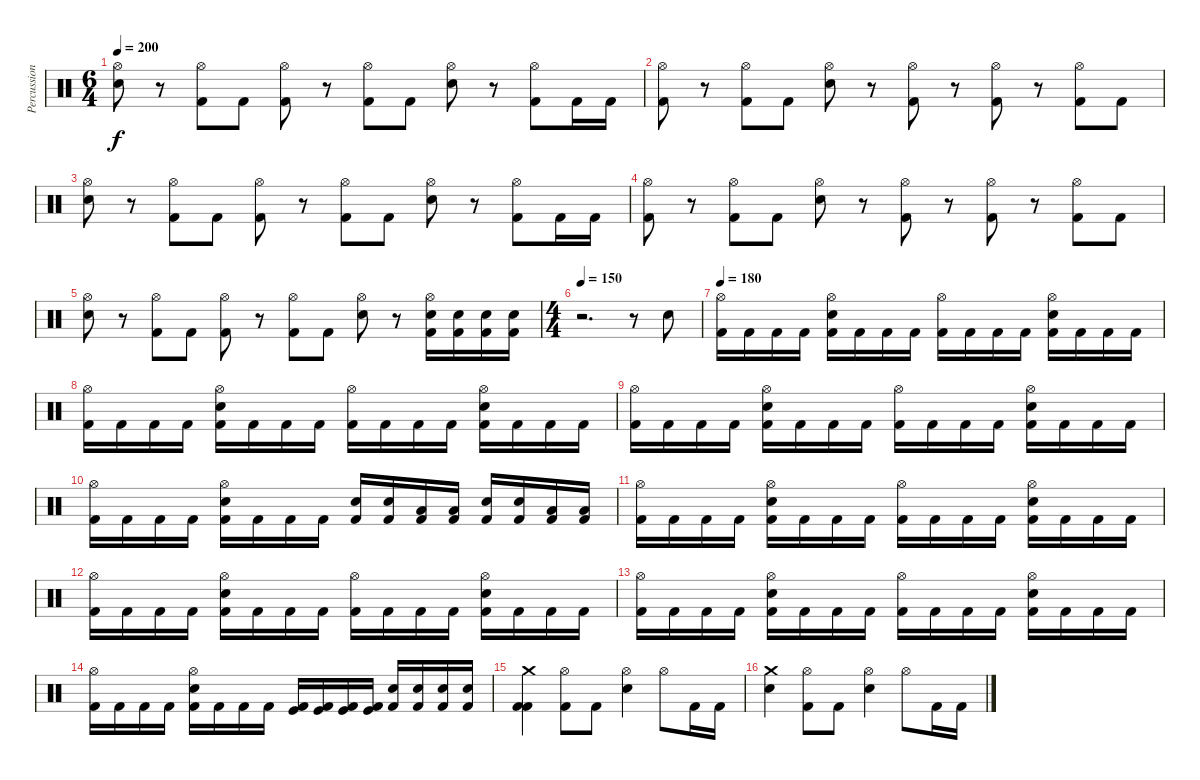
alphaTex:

\track ("Percussion" "Percussion") {instrument percussion}
\staff {score}
\articulation defaults
\ts (6 4)
\tempo 200
\clef neutral
\ks c
("Hi-Hat (open)" "Electric Snare (hit)").8{dy f} r.8 ("Hi-Hat (open)" "Kick (hit) 2").8 "Kick (hit) 2".8 ("Hi-Hat (open)" "Kick (hit) 2").8 r.8 ("Hi-Hat (open)" "Kick (hit) 2").8 "Kick (hit) 2".8 ("Hi-Hat (open)" "Electric Snare (hit)").8 r.8 ("Hi-Hat (open)" "Kick (hit) 2").8 "Kick (hit) 2".16 "Kick (hit) 2".16 |
("Hi-Hat (open)" "Kick (hit) 2").8 r.8 ("Hi-Hat (open)" "Kick (hit) 2").8 "Kick (hit) 2".8 ("Hi-Hat (open)" "Electric Snare (hit)").8 r.8 ("Hi-Hat (open)" "Kick (hit) 2").8 r.8 ("Hi-Hat (open)" "Kick (hit) 2").8 r.8 ("Hi-Hat (open)" "Kick (hit) 2").8 "Kick (hit) 2".8 |
("Hi-Hat (open)" "Electric Snare (hit)").8 r.8 ("Hi-Hat (open)" "Kick (hit) 2").8 "Kick (hit) 2".8 ("Hi-Hat (open)" "Kick (hit) 2").8 r.8 ("Hi-Hat (open)" "Kick (hit) 2").8 "Kick (hit) 2".8 ("Hi-Hat (open)" "Electric Snare (hit)").8 r.8 ("Hi-Hat (open)" "Kick (hit) 2").8 "Kick (hit) 2".16 "Kick (hit) 2".16 |
("Hi-Hat (open)" "Kick (hit) 2").8 r.8 ("Hi-Hat (open)" "Kick (hit) 2").8 "Kick (hit) 2".8 ("Hi-Hat (open)" "Electric Snare (hit)").8 r.8 ("Hi-Hat (open)" "Kick (hit) 2").8 r.8 ("Hi-Hat (open)" "Kick (hit) 2").8 r.8 ("Hi-Hat (open)" "Kick (hit) 2").8 "Kick (hit) 2".8 |
("Hi-Hat (open)" "Electric Snare (hit)").8 r.8 ("Hi-Hat (open)" "Kick (hit) 2").8 "Kick (hit) 2".8 ("Hi-Hat (open)" "Kick (hit) 2").8 r.8 ("Hi-Hat (open)" "Kick (hit) 2").8 "Kick (hit) 2".8 ("Hi-Hat (open)" "Electric Snare (hit)").8 r.8 ("Hi-Hat (open)" "Electric Snare (hit)" "Kick (hit) 2").16 ("Electric Snare (hit)" "Kick (hit) 2").16 ("Electric Snare (hit)" "Kick (hit) 2").16 ("Electric Snare (hit)" "Kick (hit) 2").16 |
\ts (4 4)
\tempo 150
r.2{d} r.8 "Electric Snare (hit)".8 |
\tempo 180
("Hi-Hat (open)" "Kick (hit) 2").16 "Kick (hit) 2".16 "Kick (hit) 2".16 "Kick (hit) 2".16 ("Hi-Hat (open)" "Kick (hit) 2" "Electric Snare (hit)").16 "Kick (hit) 2".16 "Kick (hit) 2".16 "Kick (hit) 2".16 ("Hi-Hat (open)" "Kick (hit) 2").16 "Kick (hit) 2".16 "Kick (hit) 2".16 "Kick (hit) 2".16 ("Hi-Hat (open)" "Kick (hit) 2" "Electric Snare (hit)").16 "Kick (hit) 2".16 "Kick (hit) 2".16 "Kick (hit) 2".16 |
("Hi-Hat (open)" "Kick (hit) 2").16 "Kick (hit) 2".16 "Kick (hit) 2".16 "Kick (hit) 2".16 ("Hi-Hat (open)" "Kick (hit) 2" "Electric Snare (hit)").16 "Kick (hit) 2".16 "Kick (hit) 2".16 "Kick (hit) 2".16 ("Hi-Hat (open)" "Kick (hit) 2").16 "Kick (hit) 2".16 "Kick (hit) 2".16 "Kick (hit) 2".16 ("Hi-Hat (open)" "Kick (hit) 2" "Electric Snare (hit)").16 "Kick (hit) 2".16 "Kick (hit) 2".16 "Kick (hit) 2".16 |
("Hi-Hat (open)" "Kick (hit) 2").16 "Kick (hit) 2".16 "Kick (hit) 2".16 "Kick (hit) 2".16 ("Hi-Hat (open)" "Kick (hit) 2" "Electric Snare (hit)").16 "Kick (hit) 2".16 "Kick (hit) 2".16 "Kick (hit) 2".16 ("Hi-Hat (open)" "Kick (hit) 2").16 "Kick (hit) 2".16 "Kick (hit) 2".16 "Kick (hit) 2".16 ("Hi-Hat (open)" "Kick (hit) 2" "Electric Snare (hit)").16 "Kick (hit) 2".16 "Kick (hit) 2".16 "Kick (hit) 2".16 |
("Hi-Hat (open)" "Kick (hit) 2").16 "Kick (hit) 2".16 "Kick (hit) 2".16 "Kick (hit) 2".16 ("Hi-Hat (open)" "Kick (hit) 2" "Electric Snare (hit)").16 "Kick (hit) 2".16 "Kick (hit) 2".16 "Kick (hit) 2".16 ("Electric Snare (hit)" "Kick (hit) 2").16 ("Electric Snare (hit)" "Kick (hit) 2").16 ("Low Floor Tom (hit)" "Kick (hit) 2").16 ("Low Floor Tom (hit)" "Kick (hit) 2").16 ("Electric Snare (hit)" "Kick (hit) 2").16 ("Electric Snare (hit)" "Kick (hit) 2").16 ("Low Floor Tom (hit)" "Kick (hit) 2").16 ("Low Floor Tom (hit)" "Kick (hit) 2").16 |
("Hi-Hat (open)" "Kick (hit) 2").16 "Kick (hit) 2".16 "Kick (hit) 2".16 "Kick (hit) 2".16 ("Hi-Hat (open)" "Kick (hit) 2" "Electric Snare (hit)").16 "Kick (hit) 2".16 "Kick (hit) 2".16 "Kick (hit) 2".16 ("Hi-Hat (open)" "Kick (hit) 2").16 "Kick (hit) 2".16 "Kick (hit) 2".16 "Kick (hit) 2".16 ("Hi-Hat (open)" "Kick (hit) 2" "Electric Snare (hit)").16 "Kick (hit) 2".16 "Kick (hit) 2".16 "Kick (hit) 2".16 |
("Hi-Hat (open)" "Kick (hit) 2").16 "Kick (hit) 2".16 "Kick (hit) 2".16 "Kick (hit) 2".16 ("Hi-Hat (open)" "Kick (hit) 2" "Electric Snare (hit)").16 "Kick (hit) 2".16 "Kick (hit) 2".16 "Kick (hit) 2".16 ("Hi-Hat (open)" "Kick (hit) 2").16 "Kick (hit) 2".16 "Kick (hit) 2".16 "Kick (hit) 2".16 ("Hi-Hat (open)" "Kick (hit) 2" "Electric Snare (hit)").16 "Kick (hit) 2".16 "Kick (hit) 2".16 "Kick (hit) 2".16 |
("Hi-Hat (open)" "Kick (hit) 2").16 "Kick (hit) 2".16 "Kick (hit) 2".16 "Kick (hit) 2".16 ("Hi-Hat (open)" "Kick (hit) 2" "Electric Snare (hit)").16 "Kick (hit) 2".16 "Kick (hit) 2".16 "Kick (hit) 2".16 ("Hi-Hat (open)" "Kick (hit) 2").16 "Kick (hit) 2".16 "Kick (hit) 2".16 "Kick (hit) 2".16 ("Hi-Hat (open)" "Kick (hit) 2" "Electric Snare (hit)").16 "Kick (hit) 2".16 "Kick (hit) 2".16 "Kick (hit) 2".16 |
("Hi-Hat (open)" "Kick (hit) 2").16 "Kick (hit) 2".16 "Kick (hit) 2".16 "Kick (hit) 2".16 ("Hi-Hat (open)" "Kick (hit) 2" "Electric Snare (hit)").16 "Kick (hit) 2".16 "Kick (hit) 2".16 "Kick (hit) 2".16 ("Kick (hit)" "Kick (hit) 2").16 ("Kick (hit)" "Kick (hit) 2").16 ("Kick (hit)" "Kick (hit) 2").16 ("Kick (hit)" "Kick (hit) 2").16 ("Electric Snare (hit)" "Kick (hit) 2").16 ("Electric Snare (hit)" "Kick (hit) 2").16 ("Electric Snare (hit)" "Kick (hit) 2").16 ("Electric Snare (hit)" "Kick (hit) 2").16 |
("Crash medium (hit)" "Kick (hit) 2" "Kick (hit) 2").4 ("Hi-Hat (open)" "Kick (hit) 2").8 "Kick (hit) 2".8 ("Hi-Hat (open)" "Electric Snare (hit)").4 "Hi-Hat (open)".8 "Kick (hit) 2".16 "Kick (hit) 2".16 |
("Crash medium (hit)" "Electric Snare (hit)").4 ("Hi-Hat (open)" "Kick (hit) 2").8 "Kick (hit) 2".8 ("Hi-Hat (open)" "Electric Snare (hit)").4 "Hi-Hat (open)".8 "Kick (hit) 2".16 "Kick (hit) 2".16
